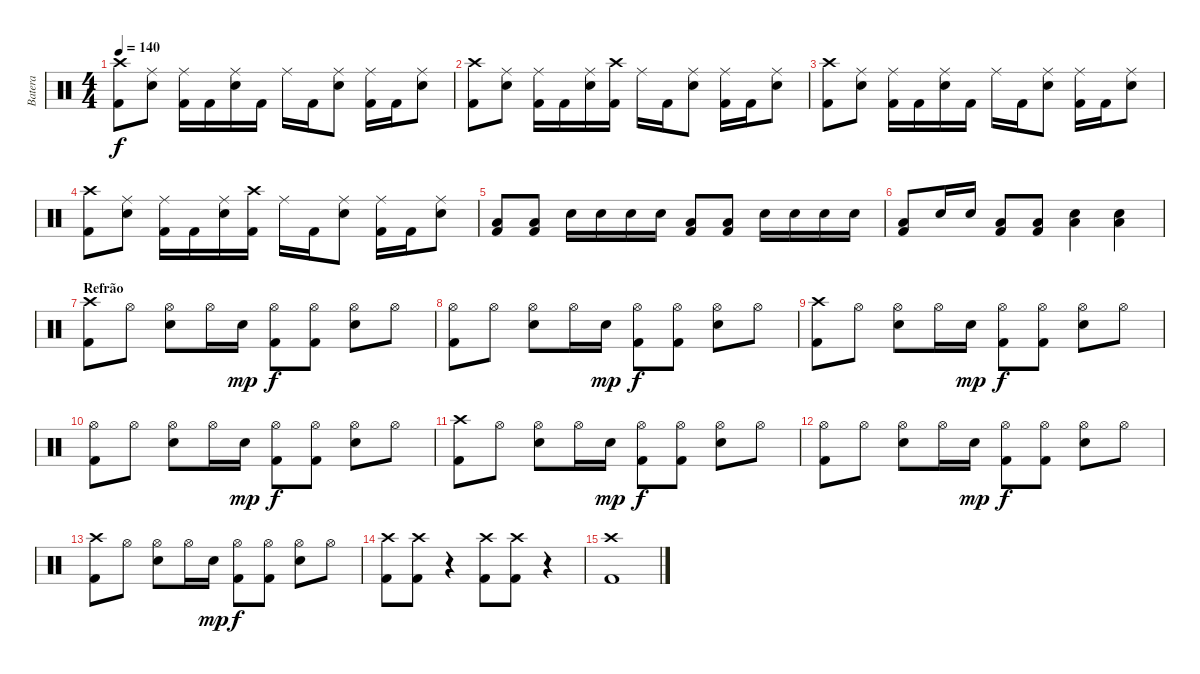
\track ("Batera" "Batera") {instrument percussion}
\staff {score}
\articulation defaults
\ts (4 4)
\tempo 140
\clef neutral
\ks c
("Crash high (hit)" "Kick (hit) 2").8{dy f} ("Ride (middle)" "Snare (hit) 2").8 ("Ride (middle)" "Kick (hit) 2").16 "Kick (hit) 2".16 ("Ride (middle)" "Snare (hit) 2").16 "Kick (hit) 2".16 "Ride (middle)".16 "Kick (hit) 2".16 ("Ride (middle)" "Snare (hit) 2").8 ("Ride (middle)" "Kick (hit) 2").16 "Kick (hit) 2".16 ("Ride (middle)" "Snare (hit) 2").8 |
("Crash high (hit)" "Kick (hit) 2").8 ("Ride (middle)" "Snare (hit) 2").8 ("Ride (middle)" "Kick (hit) 2").16 "Kick (hit) 2".16 ("Ride (middle)" "Snare (hit) 2").16 ("Crash high (hit)" "Kick (hit) 2").16 "Ride (middle)".16 "Kick (hit) 2".16 ("Ride (middle)" "Snare (hit) 2").8 ("Ride (middle)" "Kick (hit) 2").16 "Kick (hit) 2".16 ("Ride (middle)" "Snare (hit) 2").8 |
("Crash high (hit)" "Kick (hit) 2").8 ("Ride (middle)" "Snare (hit) 2").8 ("Ride (middle)" "Kick (hit) 2").16 "Kick (hit) 2".16 ("Ride (middle)" "Snare (hit) 2").16 "Kick (hit) 2".16 "Ride (middle)".16 "Kick (hit) 2".16 ("Ride (middle)" "Snare (hit) 2").8 ("Ride (middle)" "Kick (hit) 2").16 "Kick (hit) 2".16 ("Ride (middle)" "Snare (hit) 2").8 |
("Crash high (hit)" "Kick (hit) 2").8 ("Ride (middle)" "Snare (hit) 2").8 ("Ride (middle)" "Kick (hit) 2").16 "Kick (hit) 2".16 ("Ride (middle)" "Snare (hit) 2").16 ("Crash high (hit)" "Kick (hit) 2").16 "Ride (middle)".16 "Kick (hit) 2".16 ("Ride (middle)" "Snare (hit) 2").8 ("Ride (middle)" "Kick (hit) 2").16 "Kick (hit) 2".16 ("Ride (middle)" "Snare (hit) 2").8 |
("Low Tom (hit)" "Kick (hit) 2").8 ("Low Tom (hit)" "Kick (hit) 2").8 "Snare (hit) 2".16 "Snare (hit) 2".16 "Snare (hit) 2".16 "Snare (hit) 2".16 ("Low Tom (hit)" "Kick (hit) 2").8 ("Low Tom (hit)" "Kick (hit) 2").8 "Snare (hit) 2".16 "Snare (hit) 2".16 "Snare (hit) 2".16 "Snare (hit) 2".16 |
("Low Tom (hit)" "Kick (hit) 2").8 "Snare (hit) 2".16 "Snare (hit) 2".16 ("Low Tom (hit)" "Kick (hit) 2").8 ("Low Tom (hit)" "Kick (hit) 2").8 ("Low Tom (hit)" "Snare (hit) 2").4 ("Low Tom (hit)" "Snare (hit) 2").4 |
\section ("" "Refrão")
("Crash high (hit)" "Kick (hit) 2").8 "Hi-Hat (open)".8 ("Hi-Hat (open)" "Snare (hit) 2").8 "Hi-Hat (open)".16 "Snare (hit) 2".16{dy mp} ("Hi-Hat (open)" "Kick (hit) 2").8{dy f} ("Hi-Hat (open)" "Kick (hit) 2").8 ("Hi-Hat (open)" "Snare (hit) 2").8 "Hi-Hat (open)".8 |
("Hi-Hat (open)" "Kick (hit) 2").8 "Hi-Hat (open)".8 ("Hi-Hat (open)" "Snare (hit) 2").8 "Hi-Hat (open)".16 "Snare (hit) 2".16{dy mp} ("Hi-Hat (open)" "Kick (hit) 2").8{dy f} ("Hi-Hat (open)" "Kick (hit) 2").8 ("Hi-Hat (open)" "Snare (hit) 2").8 "Hi-Hat (open)".8 |
("Crash high (hit)" "Kick (hit) 2").8 "Hi-Hat (open)".8 ("Hi-Hat (open)" "Snare (hit) 2").8 "Hi-Hat (open)".16 "Snare (hit) 2".16{dy mp} ("Hi-Hat (open)" "Kick (hit) 2").8{dy f} ("Hi-Hat (open)" "Kick (hit) 2").8 ("Hi-Hat (open)" "Snare (hit) 2").8 "Hi-Hat (open)".8 |
("Hi-Hat (open)" "Kick (hit) 2").8 "Hi-Hat (open)".8 ("Hi-Hat (open)" "Snare (hit) 2").8 "Hi-Hat (open)".16 "Snare (hit) 2".16{dy mp} ("Hi-Hat (open)" "Kick (hit) 2").8{dy f} ("Hi-Hat (open)" "Kick (hit) 2").8 ("Hi-Hat (open)" "Snare (hit) 2").8 "Hi-Hat (open)".8 |
("Crash high (hit)" "Kick (hit) 2").8 "Hi-Hat (open)".8 ("Hi-Hat (open)" "Snare (hit) 2").8 "Hi-Hat (open)".16 "Snare (hit) 2".16{dy mp} ("Hi-Hat (open)" "Kick (hit) 2").8{dy f} ("Hi-Hat (open)" "Kick (hit) 2").8 ("Hi-Hat (open)" "Snare (hit) 2").8 "Hi-Hat (open)".8 |
("Hi-Hat (open)" "Kick (hit) 2").8 "Hi-Hat (open)".8 ("Hi-Hat (open)" "Snare (hit) 2").8 "Hi-Hat (open)".16 "Snare (hit) 2".16{dy mp} ("Hi-Hat (open)" "Kick (hit) 2").8{dy f} ("Hi-Hat (open)" "Kick (hit) 2").8 ("Hi-Hat (open)" "Snare (hit) 2").8 "Hi-Hat (open)".8 |
("Crash high (hit)" "Kick (hit) 2").8 "Hi-Hat (open)".8 ("Hi-Hat (open)" "Snare (hit) 2").8 "Hi-Hat (open)".16 "Snare (hit) 2".16{dy mp} ("Hi-Hat (open)" "Kick (hit) 2").8{dy f} ("Hi-Hat (open)" "Kick (hit) 2").8 ("Hi-Hat (open)" "Snare (hit) 2").8 "Hi-Hat (open)".8 |
("Crash high (hit)" "Kick (hit) 2").8 ("Crash high (hit)" "Kick (hit) 2").8 r.4 ("Crash high (hit)" "Kick (hit) 2").8 ("Crash high (hit)" "Kick (hit) 2").8 r.4 |
("Crash high (hit)" "Kick (hit) 2").1
